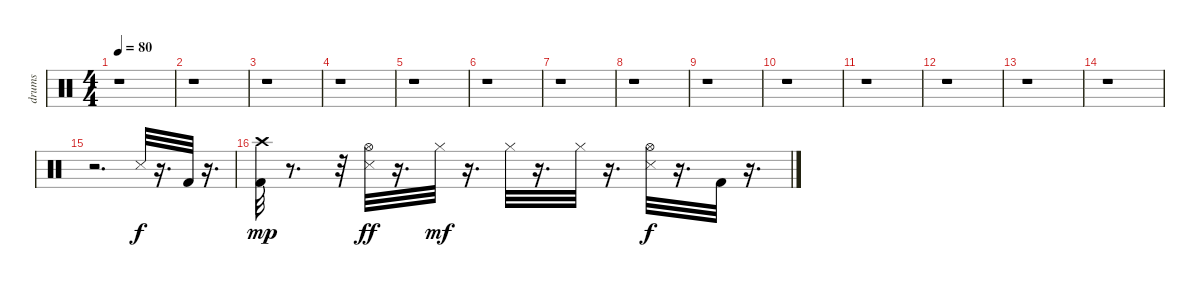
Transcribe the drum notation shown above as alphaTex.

\track ("drums" "drums") {instrument percussion}
\staff {score}
\articulation defaults
\ts (4 4)
\tempo 80
\clef neutral
\ks c
r.1{dy f} |
r.1 |
r.1 |
r.1 |
r.1 |
r.1 |
r.1 |
r.1 |
r.1 |
r.1 |
r.1 |
r.1 |
r.1 |
r.1 |
r.2{d} "Snare (side stick) 3".32 r.16{d} "Kick (hit) 2".32 r.16{d} |
("Crash high (hit)" "Kick (hit) 2").32{dy mp} r.8{d} r.32 ("Snare (side stick) 3" "Hi-Hat (open)").32{dy ff} r.16{d} "Hi-Hat (closed)".32{dy mf} r.16{d} "Hi-Hat (closed)".32 r.16{d} "Hi-Hat (closed)".32 r.16{d} ("Snare (side stick) 3" "Hi-Hat (open)").32{dy f} r.16{d} "Kick (hit) 2".32 r.16{d}
